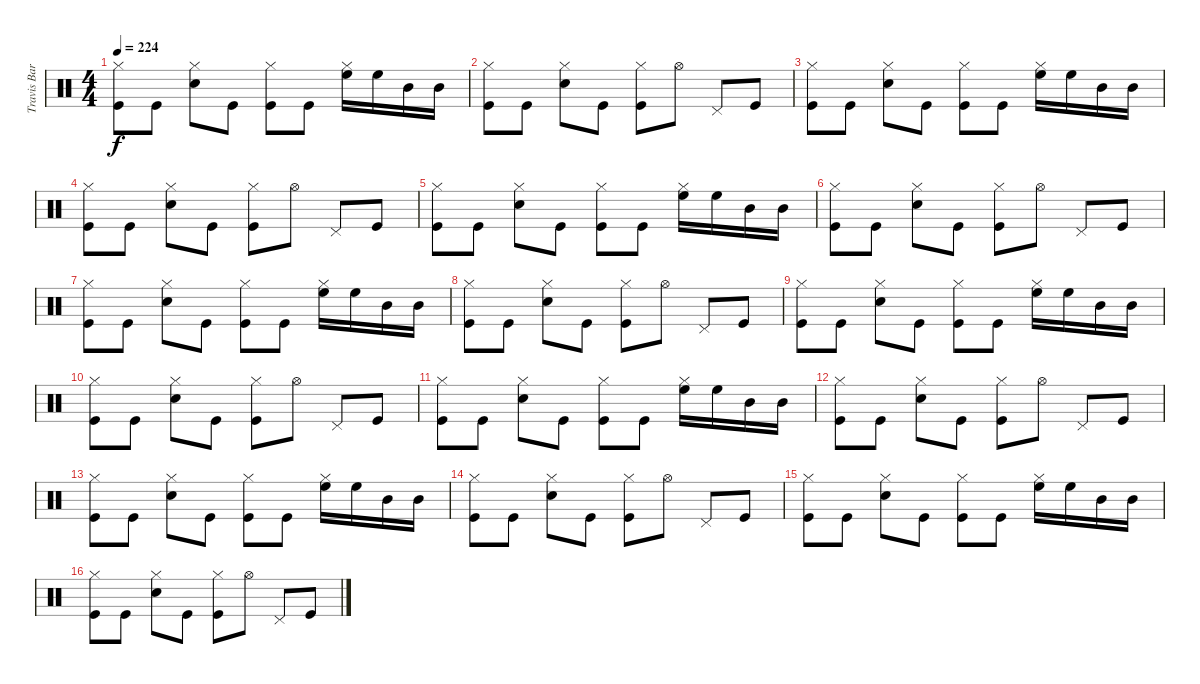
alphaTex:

\track ("Travis Barker (Drums)" "Travis Bar") {instrument percussion}
\staff {score}
\articulation defaults
\ts (4 4)
\tempo 224
\clef neutral
\ks c
("Kick (hit)" "Hi-Hat (closed)").8{dy f} "Kick (hit)".8 ("Electric Snare (hit)" "Hi-Hat (closed)").8 "Kick (hit)".8 ("Kick (hit)" "Hi-Hat (closed)").8 "Kick (hit)".8 ("High Floor Tom (hit)" "Hi-Hat (closed)").16 "High Floor Tom (hit)".16 "Mid Tom (hit)".16 "Mid Tom (hit)".16 |
("Kick (hit)" "Hi-Hat (closed)").8 "Kick (hit)".8 ("Electric Snare (hit)" "Hi-Hat (closed)").8 "Kick (hit)".8 ("Kick (hit)" "Hi-Hat (closed)").8 "Hi-Hat (open)".8 "Pedal Hi-Hat (hit)".8 "Kick (hit)".8 |
("Kick (hit)" "Hi-Hat (closed)").8 "Kick (hit)".8 ("Electric Snare (hit)" "Hi-Hat (closed)").8 "Kick (hit)".8 ("Kick (hit)" "Hi-Hat (closed)").8 "Kick (hit)".8 ("High Floor Tom (hit)" "Hi-Hat (closed)").16 "High Floor Tom (hit)".16 "Mid Tom (hit)".16 "Mid Tom (hit)".16 |
("Kick (hit)" "Hi-Hat (closed)").8 "Kick (hit)".8 ("Electric Snare (hit)" "Hi-Hat (closed)").8 "Kick (hit)".8 ("Kick (hit)" "Hi-Hat (closed)").8 "Hi-Hat (open)".8 "Pedal Hi-Hat (hit)".8 "Kick (hit)".8 |
("Kick (hit)" "Hi-Hat (closed)").8 "Kick (hit)".8 ("Electric Snare (hit)" "Hi-Hat (closed)").8 "Kick (hit)".8 ("Kick (hit)" "Hi-Hat (closed)").8 "Kick (hit)".8 ("High Floor Tom (hit)" "Hi-Hat (closed)").16 "High Floor Tom (hit)".16 "Mid Tom (hit)".16 "Mid Tom (hit)".16 |
("Kick (hit)" "Hi-Hat (closed)").8 "Kick (hit)".8 ("Electric Snare (hit)" "Hi-Hat (closed)").8 "Kick (hit)".8 ("Kick (hit)" "Hi-Hat (closed)").8 "Hi-Hat (open)".8 "Pedal Hi-Hat (hit)".8 "Kick (hit)".8 |
("Kick (hit)" "Hi-Hat (closed)").8 "Kick (hit)".8 ("Electric Snare (hit)" "Hi-Hat (closed)").8 "Kick (hit)".8 ("Kick (hit)" "Hi-Hat (closed)").8 "Kick (hit)".8 ("High Floor Tom (hit)" "Hi-Hat (closed)").16 "High Floor Tom (hit)".16 "Mid Tom (hit)".16 "Mid Tom (hit)".16 |
("Kick (hit)" "Hi-Hat (closed)").8 "Kick (hit)".8 ("Electric Snare (hit)" "Hi-Hat (closed)").8 "Kick (hit)".8 ("Kick (hit)" "Hi-Hat (closed)").8 "Hi-Hat (open)".8 "Pedal Hi-Hat (hit)".8 "Kick (hit)".8 |
("Kick (hit)" "Hi-Hat (closed)").8 "Kick (hit)".8 ("Electric Snare (hit)" "Hi-Hat (closed)").8 "Kick (hit)".8 ("Kick (hit)" "Hi-Hat (closed)").8 "Kick (hit)".8 ("High Floor Tom (hit)" "Hi-Hat (closed)").16 "High Floor Tom (hit)".16 "Mid Tom (hit)".16 "Mid Tom (hit)".16 |
("Kick (hit)" "Hi-Hat (closed)").8 "Kick (hit)".8 ("Electric Snare (hit)" "Hi-Hat (closed)").8 "Kick (hit)".8 ("Kick (hit)" "Hi-Hat (closed)").8 "Hi-Hat (open)".8 "Pedal Hi-Hat (hit)".8 "Kick (hit)".8 |
("Kick (hit)" "Hi-Hat (closed)").8 "Kick (hit)".8 ("Electric Snare (hit)" "Hi-Hat (closed)").8 "Kick (hit)".8 ("Kick (hit)" "Hi-Hat (closed)").8 "Kick (hit)".8 ("High Floor Tom (hit)" "Hi-Hat (closed)").16 "High Floor Tom (hit)".16 "Mid Tom (hit)".16 "Mid Tom (hit)".16 |
("Kick (hit)" "Hi-Hat (closed)").8 "Kick (hit)".8 ("Electric Snare (hit)" "Hi-Hat (closed)").8 "Kick (hit)".8 ("Kick (hit)" "Hi-Hat (closed)").8 "Hi-Hat (open)".8 "Pedal Hi-Hat (hit)".8 "Kick (hit)".8 |
("Kick (hit)" "Hi-Hat (closed)").8 "Kick (hit)".8 ("Electric Snare (hit)" "Hi-Hat (closed)").8 "Kick (hit)".8 ("Kick (hit)" "Hi-Hat (closed)").8 "Kick (hit)".8 ("High Floor Tom (hit)" "Hi-Hat (closed)").16 "High Floor Tom (hit)".16 "Mid Tom (hit)".16 "Mid Tom (hit)".16 |
("Kick (hit)" "Hi-Hat (closed)").8 "Kick (hit)".8 ("Electric Snare (hit)" "Hi-Hat (closed)").8 "Kick (hit)".8 ("Kick (hit)" "Hi-Hat (closed)").8 "Hi-Hat (open)".8 "Pedal Hi-Hat (hit)".8 "Kick (hit)".8 |
("Kick (hit)" "Hi-Hat (closed)").8 "Kick (hit)".8 ("Electric Snare (hit)" "Hi-Hat (closed)").8 "Kick (hit)".8 ("Kick (hit)" "Hi-Hat (closed)").8 "Kick (hit)".8 ("High Floor Tom (hit)" "Hi-Hat (closed)").16 "High Floor Tom (hit)".16 "Mid Tom (hit)".16 "Mid Tom (hit)".16 |
("Kick (hit)" "Hi-Hat (closed)").8 "Kick (hit)".8 ("Electric Snare (hit)" "Hi-Hat (closed)").8 "Kick (hit)".8 ("Kick (hit)" "Hi-Hat (closed)").8 "Hi-Hat (open)".8 "Pedal Hi-Hat (hit)".8 "Kick (hit)".8
